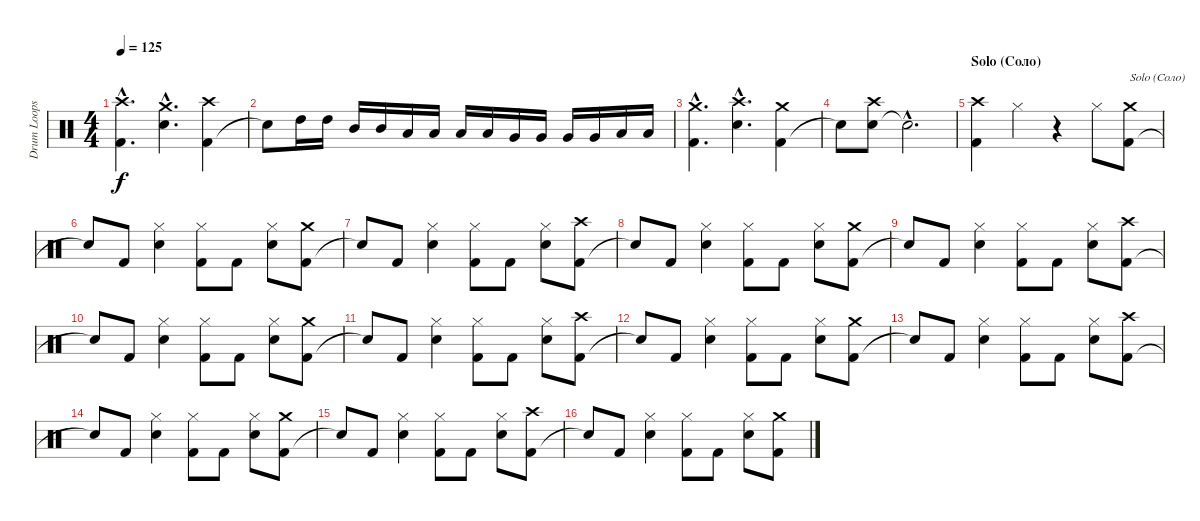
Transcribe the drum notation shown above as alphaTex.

\track ("Drum Loops (Дурачок)" "Drum Loops") {instrument percussion}
\staff {score}
\articulation defaults
\ts (4 4)
\tempo 125
\clef neutral
\ks c
("Kick (hit) 2"{hac} "Crash high (hit)"{hac}).4{d dy f} ("Snare (hit) 2"{hac} "Crash medium (hit)"{hac}).4{d} ("Kick (hit) 2" "Crash high (hit)").4 |
"Snare (hit)"{t}.8 "High Tom (hit)".16 "High Tom (hit)".16 "Mid Tom (hit)".16 "Mid Tom (hit)".16 "Low Tom (hit)".16 "Low Tom (hit)".16 "Low Tom (hit)".16 "Low Tom (hit)".16 "Very Low Tom (hit)".16 "Very Low Tom (hit)".16 "Very Low Tom (hit)".16 "Very Low Tom (hit)".16 "Low Floor Tom (hit)".16 "Low Floor Tom (hit)".16 |
("Kick (hit) 2"{hac} "Crash medium (hit)"{hac}).4{d} ("Snare (hit) 2"{hac} "Crash high (hit)"{hac}).4{d} ("Kick (hit) 2" "Crash medium (hit)").4 |
"Snare (hit)"{t}.8 ("Snare (hit) 2" "Crash high (hit)").8 "Snare (hit)"{hac t}.2{d} |
\section ("" "Solo (Соло)")
("Kick (hit) 2" "Crash high (hit)").4 "Hi-Hat (closed)".4 r.4 "Hi-Hat (closed)".8 ("Kick (hit) 2" "Crash medium (hit)").8{txt "Solo (Соло)"} |
"Snare (hit)"{t}.8 "Kick (hit) 2".8 ("Snare (hit) 2" "Hi-Hat (closed)").4 ("Kick (hit) 2" "Hi-Hat (closed)").8 "Kick (hit) 2".8 ("Snare (hit) 2" "Hi-Hat (closed)").8 ("Kick (hit) 2" "Crash medium (hit)").8 |
"Snare (hit)"{t}.8 "Kick (hit) 2".8 ("Snare (hit) 2" "Hi-Hat (closed)").4 ("Kick (hit) 2" "Hi-Hat (closed)").8 "Kick (hit) 2".8 ("Snare (hit) 2" "Hi-Hat (closed)").8 ("Kick (hit) 2" "Crash high (hit)").8 |
"Snare (hit)"{t}.8 "Kick (hit) 2".8 ("Snare (hit) 2" "Hi-Hat (closed)").4 ("Kick (hit) 2" "Hi-Hat (closed)").8 "Kick (hit) 2".8 ("Snare (hit) 2" "Hi-Hat (closed)").8 ("Kick (hit) 2" "Crash medium (hit)").8 |
"Snare (hit)"{t}.8 "Kick (hit) 2".8 ("Snare (hit) 2" "Hi-Hat (closed)").4 ("Kick (hit) 2" "Hi-Hat (closed)").8 "Kick (hit) 2".8 ("Snare (hit) 2" "Hi-Hat (closed)").8 ("Kick (hit) 2" "Crash high (hit)").8 |
"Snare (hit)"{t}.8 "Kick (hit) 2".8 ("Snare (hit) 2" "Hi-Hat (closed)").4 ("Kick (hit) 2" "Hi-Hat (closed)").8 "Kick (hit) 2".8 ("Snare (hit) 2" "Hi-Hat (closed)").8 ("Kick (hit) 2" "Crash medium (hit)").8 |
"Snare (hit)"{t}.8 "Kick (hit) 2".8 ("Snare (hit) 2" "Hi-Hat (closed)").4 ("Kick (hit) 2" "Hi-Hat (closed)").8 "Kick (hit) 2".8 ("Snare (hit) 2" "Hi-Hat (closed)").8 ("Kick (hit) 2" "Crash high (hit)").8 |
"Snare (hit)"{t}.8 "Kick (hit) 2".8 ("Snare (hit) 2" "Hi-Hat (closed)").4 ("Kick (hit) 2" "Hi-Hat (closed)").8 "Kick (hit) 2".8 ("Snare (hit) 2" "Hi-Hat (closed)").8 ("Kick (hit) 2" "Crash medium (hit)").8 |
"Snare (hit)"{t}.8 "Kick (hit) 2".8 ("Snare (hit) 2" "Hi-Hat (closed)").4 ("Kick (hit) 2" "Hi-Hat (closed)").8 "Kick (hit) 2".8 ("Snare (hit) 2" "Hi-Hat (closed)").8 ("Kick (hit) 2" "Crash high (hit)").8 |
"Snare (hit)"{t}.8 "Kick (hit) 2".8 ("Snare (hit) 2" "Hi-Hat (closed)").4 ("Kick (hit) 2" "Hi-Hat (closed)").8 "Kick (hit) 2".8 ("Snare (hit) 2" "Hi-Hat (closed)").8 ("Kick (hit) 2" "Crash medium (hit)").8 |
"Snare (hit)"{t}.8 "Kick (hit) 2".8 ("Snare (hit) 2" "Hi-Hat (closed)").4 ("Kick (hit) 2" "Hi-Hat (closed)").8 "Kick (hit) 2".8 ("Snare (hit) 2" "Hi-Hat (closed)").8 ("Kick (hit) 2" "Crash high (hit)").8 |
"Snare (hit)"{t}.8 "Kick (hit) 2".8 ("Snare (hit) 2" "Hi-Hat (closed)").4 ("Kick (hit) 2" "Hi-Hat (closed)").8 "Kick (hit) 2".8 ("Snare (hit) 2" "Hi-Hat (closed)").8 ("Kick (hit) 2" "Crash medium (hit)").8
